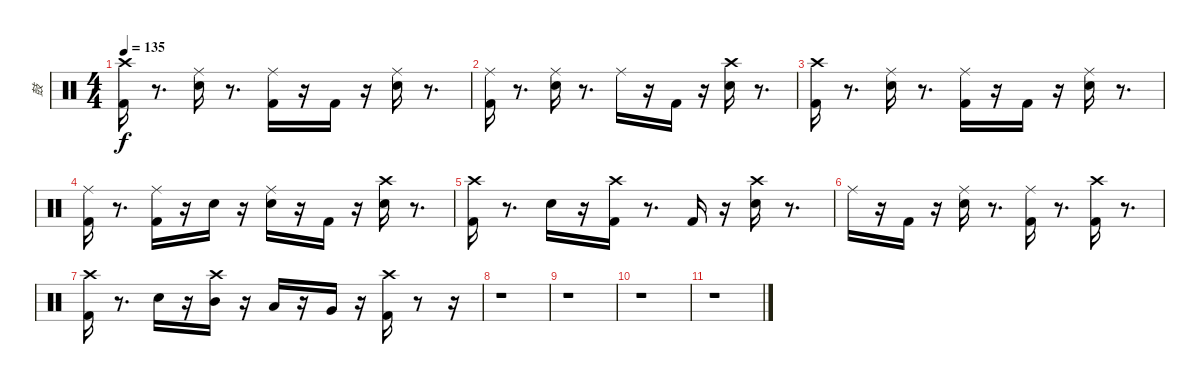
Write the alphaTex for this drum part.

\track ("鼓" "鼓") {instrument percussion}
\staff {score}
\articulation defaults
\ts (4 4)
\tempo 135
\clef neutral
\ks c
("Crash high (hit)" "Kick (hit) 2").16{dy f} r.8{d} ("Electric Snare (hit)" "Ride (middle)").16 r.8{d} ("Kick (hit) 2" "Ride (middle)").16 r.16 "Kick (hit) 2".16 r.16 ("Electric Snare (hit)" "Ride (middle)").16 r.8{d} |
("Kick (hit) 2" "Ride (middle)").16 r.8{d} ("Electric Snare (hit)" "Ride (middle)").16 r.8{d} "Ride (middle)".16 r.16 "Kick (hit) 2".16 r.16 ("Crash high (hit)" "Electric Snare (hit)").16 r.8{d} |
("Crash high (hit)" "Kick (hit) 2").16 r.8{d} ("Ride (middle)" "Electric Snare (hit)").16 r.8{d} ("Ride (middle)" "Kick (hit) 2").16 r.16 "Kick (hit) 2".16 r.16 ("Ride (middle)" "Electric Snare (hit)").16 r.8{d} |
("Ride (middle)" "Kick (hit) 2").16 r.8{d} ("Ride (middle)" "Kick (hit) 2").16 r.16 "Electric Snare (hit)".16 r.16 ("Ride (middle)" "Electric Snare (hit)").16 r.16 "Kick (hit) 2".16 r.16 ("Crash high (hit)" "Electric Snare (hit)").16 r.8{d} |
("Kick (hit) 2" "Crash high (hit)").16 r.8{d} "Electric Snare (hit)".16 r.16 ("Crash high (hit)" "Kick (hit) 2").16 r.8{d} "Kick (hit) 2".16 r.16 ("Crash high (hit)" "Electric Snare (hit)").16 r.8{d} |
"Ride (middle)".16 r.16 "Kick (hit) 2".16 r.16 ("Ride (middle)" "Electric Snare (hit)").16 r.8{d} ("Ride (middle)" "Kick (hit) 2").16 r.8{d} ("Crash high (hit)" "Kick (hit) 2").16 r.8{d} |
("Crash high (hit)" "Kick (hit) 2").16 r.8{d} "Electric Snare (hit)".16 r.16 ("Mid Tom (hit)" "Crash high (hit)").16 r.16 "Low Tom (hit)".16 r.16 "Very Low Tom (hit)".16 r.16 ("Crash high (hit)" "Kick (hit) 2").16 r.8 r.16 |
r.1 |
r.1 |
r.1 |
r.1
